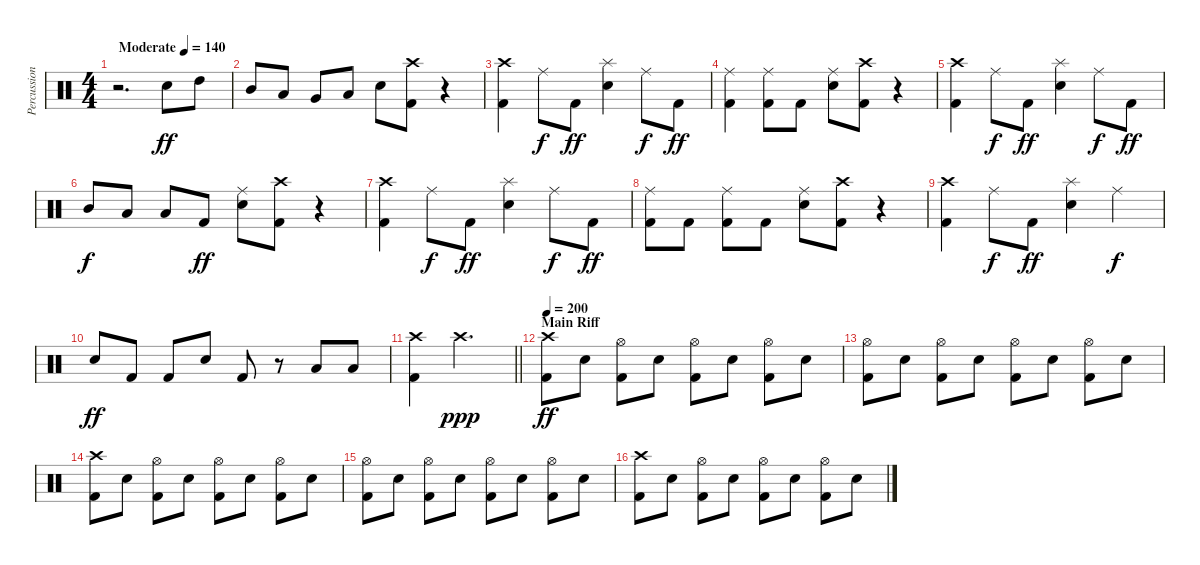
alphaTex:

\track ("Percussion" "Percussion") {instrument percussion}
\staff {score}
\articulation defaults
\ts (4 4)
\tempo (140 "Moderate")
\clef neutral
\ks c
r.2{d dy ff} "Snare (hit) 2".8 "High Tom (hit)".8 |
"Mid Tom (hit)".8 "Low Tom (hit)".8 "Very Low Tom (hit)".8 "Low Floor Tom (hit)".8 "Snare (hit) 2".8 ("Crash high (hit)" "Kick (hit) 2").8 r.4 |
("Crash high (hit)" "Kick (hit) 2").4 "Ride (middle)".8{dy f} "Kick (hit) 2".8{dy ff} ("Splash (hit)" "Snare (hit) 2").4 "Ride (middle)".8{dy f} "Kick (hit) 2".8{dy ff} |
("Ride (middle)" "Kick (hit) 2").4 ("Ride (middle)" "Kick (hit) 2").8 "Kick (hit) 2".8 ("Ride (middle)" "Snare (hit) 2").8 ("Crash high (hit)" "Kick (hit) 2").8 r.4 |
("Crash high (hit)" "Kick (hit) 2").4 "Ride (middle)".8{dy f} "Kick (hit) 2".8{dy ff} ("Splash (hit)" "Snare (hit) 2").4 "Ride (middle)".8{dy f} "Kick (hit) 2".8{dy ff} |
"Mid Tom (hit)".8{dy f} "Low Tom (hit)".8 "Low Floor Tom (hit)".8 "Kick (hit) 2".8{dy ff} ("Ride (middle)" "Snare (hit) 2").8 ("Crash high (hit)" "Kick (hit) 2").8 r.4 |
("Crash high (hit)" "Kick (hit) 2").4 "Ride (middle)".8{dy f} "Kick (hit) 2".8{dy ff} ("Splash (hit)" "Snare (hit) 2").4 "Ride (middle)".8{dy f} "Kick (hit) 2".8{dy ff} |
("Ride (middle)" "Kick (hit) 2").8 "Kick (hit) 2".8 ("Ride (middle)" "Kick (hit) 2").8 "Kick (hit) 2".8 ("Ride (middle)" "Snare (hit) 2").8 ("Crash high (hit)" "Kick (hit) 2").8 r.4 |
("Crash high (hit)" "Kick (hit) 2").4 "Ride (middle)".8{dy f} "Kick (hit) 2".8{dy ff} ("Splash (hit)" "Snare (hit) 2").4 "Ride (middle)".4{dy f} |
"Snare (hit) 2".8{dy ff} "Kick (hit) 2".8 "Kick (hit) 2".8 "Snare (hit) 2".8 "Kick (hit) 2".8 r.8 "Low Tom (hit)".8 "Low Tom (hit)".8 |
\barLineRight lightlight
("Crash high (hit)" "Kick (hit) 2").4 "Crash high (hit)".2{d dy ppp} |
\section ("" "Main Riff")
\tempo 200
("Crash high (hit)" "Kick (hit) 2").8{dy ff} "Snare (hit) 2".8 ("Hi-Hat (open)" "Kick (hit) 2").8 "Snare (hit) 2".8 ("Hi-Hat (open)" "Kick (hit) 2").8 "Snare (hit) 2".8 ("Hi-Hat (open)" "Kick (hit) 2").8 "Snare (hit) 2".8 |
("Hi-Hat (open)" "Kick (hit) 2").8 "Snare (hit) 2".8 ("Hi-Hat (open)" "Kick (hit) 2").8 "Snare (hit) 2".8 ("Hi-Hat (open)" "Kick (hit) 2").8 "Snare (hit) 2".8 ("Hi-Hat (open)" "Kick (hit) 2").8 "Snare (hit) 2".8 |
("Crash high (hit)" "Kick (hit) 2").8 "Snare (hit) 2".8 ("Hi-Hat (open)" "Kick (hit) 2").8 "Snare (hit) 2".8 ("Hi-Hat (open)" "Kick (hit) 2").8 "Snare (hit) 2".8 ("Hi-Hat (open)" "Kick (hit) 2").8 "Snare (hit) 2".8 |
("Hi-Hat (open)" "Kick (hit) 2").8 "Snare (hit) 2".8 ("Hi-Hat (open)" "Kick (hit) 2").8 "Snare (hit) 2".8 ("Hi-Hat (open)" "Kick (hit) 2").8 "Snare (hit) 2".8 ("Hi-Hat (open)" "Kick (hit) 2").8 "Snare (hit) 2".8 |
("Crash high (hit)" "Kick (hit) 2").8 "Snare (hit) 2".8 ("Hi-Hat (open)" "Kick (hit) 2").8 "Snare (hit) 2".8 ("Hi-Hat (open)" "Kick (hit) 2").8 "Snare (hit) 2".8 ("Hi-Hat (open)" "Kick (hit) 2").8 "Snare (hit) 2".8
